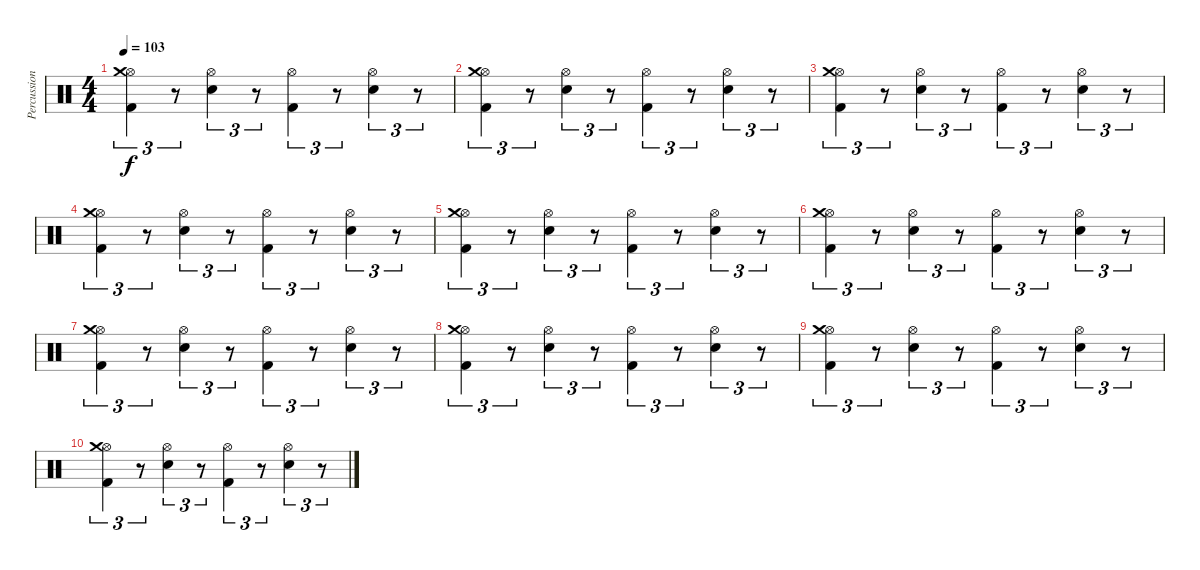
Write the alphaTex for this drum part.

\track ("Percussion" "Percussion") {instrument percussion}
\staff {score}
\articulation defaults
\ts (4 4)
\tempo 103
\clef neutral
\ks c
("Kick (hit) 2" "Hi-Hat (open)" "Crash medium (hit)").4{tu (3 2) dy f} r.8{tu (3 2)} ("Electric Snare (hit)" "Hi-Hat (open)").4{tu (3 2)} r.8{tu (3 2)} ("Kick (hit) 2" "Hi-Hat (open)").4{tu (3 2)} r.8{tu (3 2)} ("Electric Snare (hit)" "Hi-Hat (open)").4{tu (3 2)} r.8{tu (3 2)} |
("Kick (hit) 2" "Hi-Hat (open)" "Crash medium (hit)").4{tu (3 2)} r.8{tu (3 2)} ("Electric Snare (hit)" "Hi-Hat (open)").4{tu (3 2)} r.8{tu (3 2)} ("Kick (hit) 2" "Hi-Hat (open)").4{tu (3 2)} r.8{tu (3 2)} ("Electric Snare (hit)" "Hi-Hat (open)").4{tu (3 2)} r.8{tu (3 2)} |
("Kick (hit) 2" "Hi-Hat (open)" "Crash medium (hit)").4{tu (3 2)} r.8{tu (3 2)} ("Electric Snare (hit)" "Hi-Hat (open)").4{tu (3 2)} r.8{tu (3 2)} ("Kick (hit) 2" "Hi-Hat (open)").4{tu (3 2)} r.8{tu (3 2)} ("Electric Snare (hit)" "Hi-Hat (open)").4{tu (3 2)} r.8{tu (3 2)} |
("Kick (hit) 2" "Hi-Hat (open)" "Crash medium (hit)").4{tu (3 2)} r.8{tu (3 2)} ("Electric Snare (hit)" "Hi-Hat (open)").4{tu (3 2)} r.8{tu (3 2)} ("Kick (hit) 2" "Hi-Hat (open)").4{tu (3 2)} r.8{tu (3 2)} ("Electric Snare (hit)" "Hi-Hat (open)").4{tu (3 2)} r.8{tu (3 2)} |
("Kick (hit) 2" "Hi-Hat (open)" "Crash medium (hit)").4{tu (3 2)} r.8{tu (3 2)} ("Electric Snare (hit)" "Hi-Hat (open)").4{tu (3 2)} r.8{tu (3 2)} ("Kick (hit) 2" "Hi-Hat (open)").4{tu (3 2)} r.8{tu (3 2)} ("Electric Snare (hit)" "Hi-Hat (open)").4{tu (3 2)} r.8{tu (3 2)} |
("Kick (hit) 2" "Hi-Hat (open)" "Crash medium (hit)").4{tu (3 2)} r.8{tu (3 2)} ("Electric Snare (hit)" "Hi-Hat (open)").4{tu (3 2)} r.8{tu (3 2)} ("Kick (hit) 2" "Hi-Hat (open)").4{tu (3 2)} r.8{tu (3 2)} ("Electric Snare (hit)" "Hi-Hat (open)").4{tu (3 2)} r.8{tu (3 2)} |
("Kick (hit) 2" "Hi-Hat (open)" "Crash medium (hit)").4{tu (3 2)} r.8{tu (3 2)} ("Electric Snare (hit)" "Hi-Hat (open)").4{tu (3 2)} r.8{tu (3 2)} ("Kick (hit) 2" "Hi-Hat (open)").4{tu (3 2)} r.8{tu (3 2)} ("Electric Snare (hit)" "Hi-Hat (open)").4{tu (3 2)} r.8{tu (3 2)} |
("Kick (hit) 2" "Hi-Hat (open)" "Crash medium (hit)").4{tu (3 2)} r.8{tu (3 2)} ("Electric Snare (hit)" "Hi-Hat (open)").4{tu (3 2)} r.8{tu (3 2)} ("Kick (hit) 2" "Hi-Hat (open)").4{tu (3 2)} r.8{tu (3 2)} ("Electric Snare (hit)" "Hi-Hat (open)").4{tu (3 2)} r.8{tu (3 2)} |
("Kick (hit) 2" "Hi-Hat (open)" "Crash medium (hit)").4{tu (3 2)} r.8{tu (3 2)} ("Electric Snare (hit)" "Hi-Hat (open)").4{tu (3 2)} r.8{tu (3 2)} ("Kick (hit) 2" "Hi-Hat (open)").4{tu (3 2)} r.8{tu (3 2)} ("Electric Snare (hit)" "Hi-Hat (open)").4{tu (3 2)} r.8{tu (3 2)} |
("Kick (hit) 2" "Hi-Hat (open)" "Crash medium (hit)").4{tu (3 2)} r.8{tu (3 2)} ("Electric Snare (hit)" "Hi-Hat (open)").4{tu (3 2)} r.8{tu (3 2)} ("Kick (hit) 2" "Hi-Hat (open)").4{tu (3 2)} r.8{tu (3 2)} ("Electric Snare (hit)" "Hi-Hat (open)").4{tu (3 2)} r.8{tu (3 2)}
